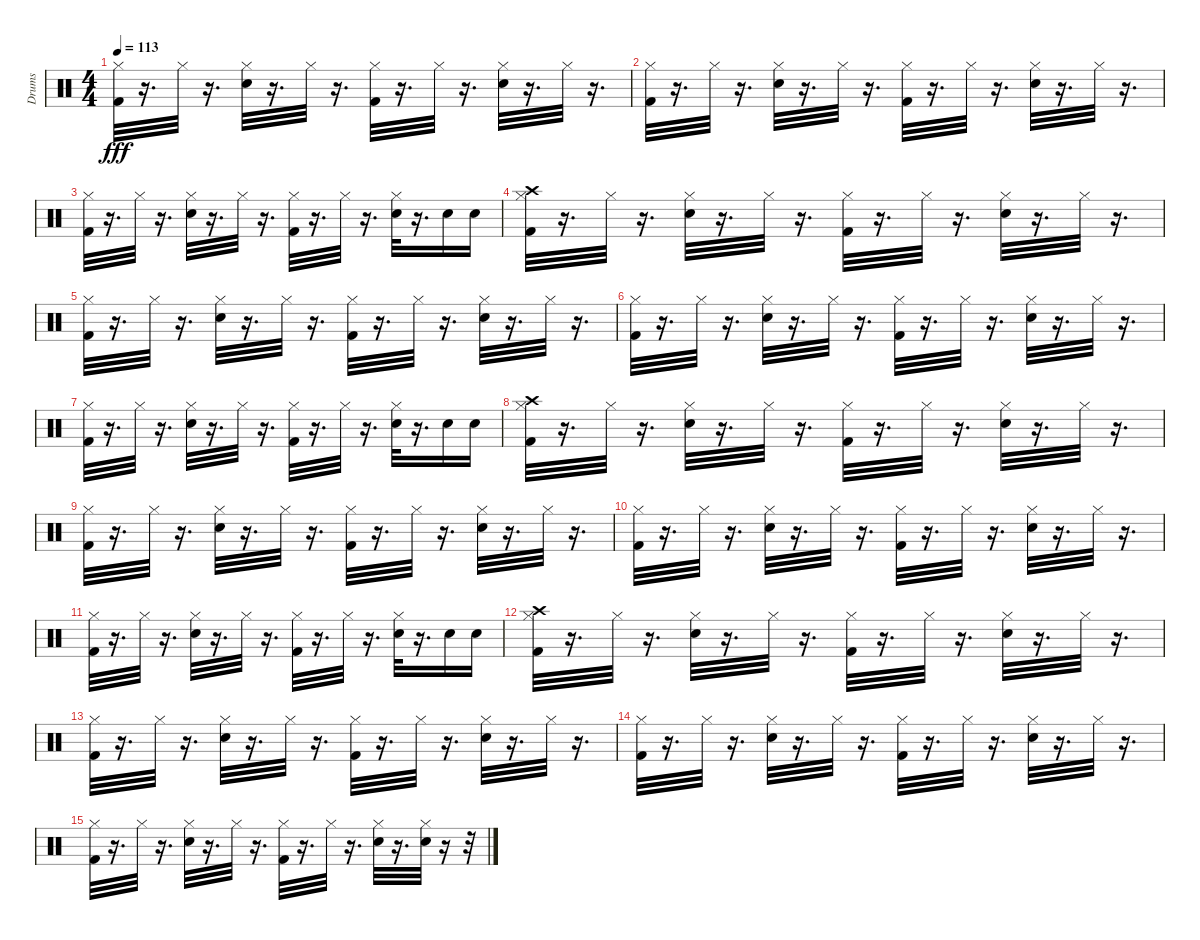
\track ("Drums" "Drums") {instrument percussion}
\staff {score}
\articulation defaults
\ts (4 4)
\tempo 113
\clef neutral
\ks c
("Kick (hit) 2" "Hi-Hat (closed)").32{dy fff} r.16{d} "Hi-Hat (closed)".32 r.16{d} ("Snare (hit) 2" "Hi-Hat (closed)").32 r.16{d} "Hi-Hat (closed)".32 r.16{d} ("Kick (hit) 2" "Hi-Hat (closed)").32 r.16{d} "Hi-Hat (closed)".32 r.16{d} ("Snare (hit) 2" "Hi-Hat (closed)").32 r.16{d} "Hi-Hat (closed)".32 r.16{d} |
("Kick (hit) 2" "Hi-Hat (closed)").32 r.16{d} "Hi-Hat (closed)".32 r.16{d} ("Snare (hit) 2" "Hi-Hat (closed)").32 r.16{d} "Hi-Hat (closed)".32 r.16{d} ("Kick (hit) 2" "Hi-Hat (closed)").32 r.16{d} "Hi-Hat (closed)".32 r.16{d} ("Snare (hit) 2" "Hi-Hat (closed)").32 r.16{d} "Hi-Hat (closed)".32 r.16{d} |
("Kick (hit) 2" "Hi-Hat (closed)").32 r.16{d} "Hi-Hat (closed)".32 r.16{d} ("Snare (hit) 2" "Hi-Hat (closed)").32 r.16{d} "Hi-Hat (closed)".32 r.16{d} ("Kick (hit) 2" "Hi-Hat (closed)").32 r.16{d} "Hi-Hat (closed)".32 r.16{d} ("Snare (hit) 2" "Hi-Hat (closed)").32 r.16{d} "Snare (hit) 2".16 "Snare (hit) 2".16 |
("Kick (hit) 2" "Hi-Hat (closed)" "Crash high (hit)").32 r.16{d} "Hi-Hat (closed)".32 r.16{d} ("Snare (hit) 2" "Hi-Hat (closed)").32 r.16{d} "Hi-Hat (closed)".32 r.16{d} ("Kick (hit) 2" "Hi-Hat (closed)").32 r.16{d} "Hi-Hat (closed)".32 r.16{d} ("Snare (hit) 2" "Hi-Hat (closed)").32 r.16{d} "Hi-Hat (closed)".32 r.16{d} |
("Kick (hit) 2" "Hi-Hat (closed)").32 r.16{d} "Hi-Hat (closed)".32 r.16{d} ("Snare (hit) 2" "Hi-Hat (closed)").32 r.16{d} "Hi-Hat (closed)".32 r.16{d} ("Kick (hit) 2" "Hi-Hat (closed)").32 r.16{d} "Hi-Hat (closed)".32 r.16{d} ("Snare (hit) 2" "Hi-Hat (closed)").32 r.16{d} "Hi-Hat (closed)".32 r.16{d} |
("Kick (hit) 2" "Hi-Hat (closed)").32 r.16{d} "Hi-Hat (closed)".32 r.16{d} ("Snare (hit) 2" "Hi-Hat (closed)").32 r.16{d} "Hi-Hat (closed)".32 r.16{d} ("Kick (hit) 2" "Hi-Hat (closed)").32 r.16{d} "Hi-Hat (closed)".32 r.16{d} ("Snare (hit) 2" "Hi-Hat (closed)").32 r.16{d} "Hi-Hat (closed)".32 r.16{d} |
("Kick (hit) 2" "Hi-Hat (closed)").32 r.16{d} "Hi-Hat (closed)".32 r.16{d} ("Snare (hit) 2" "Hi-Hat (closed)").32 r.16{d} "Hi-Hat (closed)".32 r.16{d} ("Kick (hit) 2" "Hi-Hat (closed)").32 r.16{d} "Hi-Hat (closed)".32 r.16{d} ("Snare (hit) 2" "Hi-Hat (closed)").32 r.16{d} "Snare (hit) 2".16 "Snare (hit) 2".16 |
("Kick (hit) 2" "Hi-Hat (closed)" "Crash high (hit)").32 r.16{d} "Hi-Hat (closed)".32{volume 14} r.16{d} ("Snare (hit) 2" "Hi-Hat (closed)").32{volume 13} r.16{d} "Hi-Hat (closed)".32{volume 13} r.16{d} ("Kick (hit) 2" "Hi-Hat (closed)").32{volume 13} r.16{d} "Hi-Hat (closed)".32{volume 13} r.16{d} ("Snare (hit) 2" "Hi-Hat (closed)").32{volume 12} r.16{d} "Hi-Hat (closed)".32{volume 12} r.16{d} |
("Kick (hit) 2" "Hi-Hat (closed)").32{volume 12} r.16{d} "Hi-Hat (closed)".32{volume 12} r.16{d} ("Snare (hit) 2" "Hi-Hat (closed)").32{volume 12} r.16{d} "Hi-Hat (closed)".32{volume 11} r.16{d} ("Kick (hit) 2" "Hi-Hat (closed)").32{volume 11} r.16{d} "Hi-Hat (closed)".32{volume 11} r.16{d} ("Snare (hit) 2" "Hi-Hat (closed)").32{volume 11} r.16{d} "Hi-Hat (closed)".32{volume 10} r.16{d} |
("Kick (hit) 2" "Hi-Hat (closed)").32{volume 10} r.16{d} "Hi-Hat (closed)".32{volume 10} r.16{d} ("Snare (hit) 2" "Hi-Hat (closed)").32{volume 10} r.16{d} "Hi-Hat (closed)".32{volume 10} r.16{d} ("Kick (hit) 2" "Hi-Hat (closed)").32{volume 9} r.16{d} "Hi-Hat (closed)".32{volume 9} r.16{d} ("Snare (hit) 2" "Hi-Hat (closed)").32{volume 9} r.16{d} "Hi-Hat (closed)".32{volume 9} r.16{d} |
("Kick (hit) 2" "Hi-Hat (closed)").32{volume 9} r.16{d} "Hi-Hat (closed)".32{volume 8} r.16{d} ("Snare (hit) 2" "Hi-Hat (closed)").32{volume 8} r.16{d} "Hi-Hat (closed)".32{volume 8} r.16{d} ("Kick (hit) 2" "Hi-Hat (closed)").32{volume 8} r.16{d} "Hi-Hat (closed)".32{volume 8} r.16{d} ("Snare (hit) 2" "Hi-Hat (closed)").32{volume 7} r.16{d} "Snare (hit) 2".16{volume 7} "Snare (hit) 2".16{volume 7} |
("Kick (hit) 2" "Hi-Hat (closed)" "Crash high (hit)").32{volume 7} r.16{d} "Hi-Hat (closed)".32{volume 7} r.16{d} ("Snare (hit) 2" "Hi-Hat (closed)").32{volume 6} r.16{d} "Hi-Hat (closed)".32{volume 6} r.16{d} ("Kick (hit) 2" "Hi-Hat (closed)").32{volume 6} r.16{d} "Hi-Hat (closed)".32{volume 6} r.16{d} ("Snare (hit) 2" "Hi-Hat (closed)").32{volume 6} r.16{d} "Hi-Hat (closed)".32{volume 5} r.16{d} |
("Kick (hit) 2" "Hi-Hat (closed)").32{volume 5} r.16{d} "Hi-Hat (closed)".32{volume 5} r.16{d} ("Snare (hit) 2" "Hi-Hat (closed)").32{volume 5} r.16{d} "Hi-Hat (closed)".32{volume 4} r.16{d} ("Kick (hit) 2" "Hi-Hat (closed)").32{volume 4} r.16{d} "Hi-Hat (closed)".32{volume 4} r.16{d} ("Snare (hit) 2" "Hi-Hat (closed)").32{volume 4} r.16{d} "Hi-Hat (closed)".32{volume 4} r.16{d} |
("Kick (hit) 2" "Hi-Hat (closed)").32{volume 4} r.16{d} "Hi-Hat (closed)".32{volume 3} r.16{d} ("Snare (hit) 2" "Hi-Hat (closed)").32{volume 3} r.16{d} "Hi-Hat (closed)".32{volume 3} r.16{d} ("Kick (hit) 2" "Hi-Hat (closed)").32{volume 3} r.16{d} "Hi-Hat (closed)".32{volume 2} r.16{d} ("Snare (hit) 2" "Hi-Hat (closed)").32{volume 2} r.16{d} "Hi-Hat (closed)".32{volume 2} r.16{d} |
("Kick (hit) 2" "Hi-Hat (closed)").32{volume 2} r.16{d} "Hi-Hat (closed)".32{volume 2} r.16{d} ("Snare (hit) 2" "Hi-Hat (closed)").32{volume 1} r.16{d} "Hi-Hat (closed)".32{volume 1} r.16{d} ("Kick (hit) 2" "Hi-Hat (closed)").32{volume 1} r.16{d} "Hi-Hat (closed)".32{volume 1} r.16{d} ("Snare (hit) 2" "Hi-Hat (closed)").32{volume 0} r.16{d} ("Snare (hit) 2" "Hi-Hat (closed)").32{volume 0} r.16 r.32
